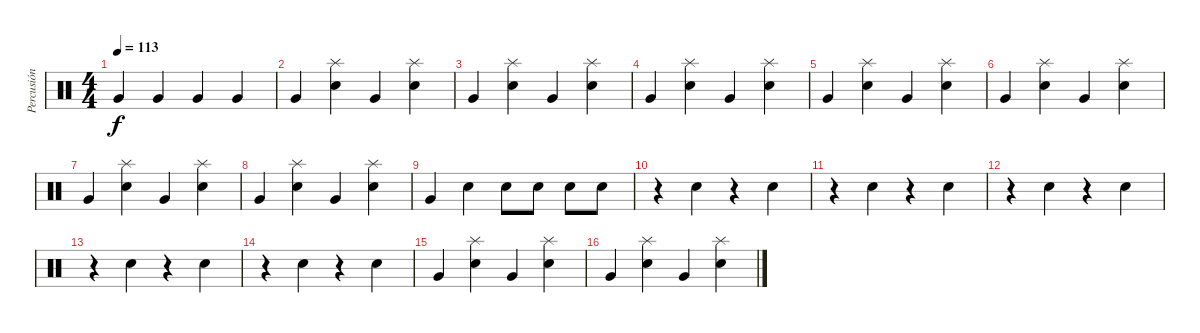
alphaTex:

\track ("Percusión" "Percusión") {instrument percussion}
\staff {score}
\articulation defaults
\ts (4 4)
\tempo 113
\clef neutral
\ks c "Very Low Tom (hit)".4{dy f} "Very Low Tom (hit)".4 "Very Low Tom (hit)".4 "Very Low Tom (hit)".4
|
"Very Low Tom (hit)".4 ("Snare (hit) 2" "Splash (hit)").4 "Very Low Tom (hit)".4 ("Snare (hit) 2" "Splash (hit)").4 |
"Very Low Tom (hit)".4 ("Snare (hit) 2" "Splash (hit)").4 "Very Low Tom (hit)".4 ("Snare (hit) 2" "Splash (hit)").4 |
"Very Low Tom (hit)".4 ("Snare (hit) 2" "Splash (hit)").4 "Very Low Tom (hit)".4 ("Snare (hit) 2" "Splash (hit)").4 |
"Very Low Tom (hit)".4 ("Snare (hit) 2" "Splash (hit)").4 "Very Low Tom (hit)".4 ("Snare (hit) 2" "Splash (hit)").4 |
"Very Low Tom (hit)".4 ("Snare (hit) 2" "Splash (hit)").4 "Very Low Tom (hit)".4 ("Snare (hit) 2" "Splash (hit)").4 |
"Very Low Tom (hit)".4 ("Snare (hit) 2" "Splash (hit)").4 "Very Low Tom (hit)".4 ("Snare (hit) 2" "Splash (hit)").4 |
"Very Low Tom (hit)".4 ("Snare (hit) 2" "Splash (hit)").4 "Very Low Tom (hit)".4 ("Snare (hit) 2" "Splash (hit)").4 |
"Very Low Tom (hit)".4 "Snare (hit) 2".4 "Snare (hit) 2".8 "Snare (hit) 2".8 "Snare (hit) 2".8 "Snare (hit) 2".8 |
r.4 "Snare (hit) 2".4 r.4 "Snare (hit) 2".4 |
r.4 "Snare (hit) 2".4 r.4 "Snare (hit) 2".4 |
r.4 "Snare (hit) 2".4 r.4 "Snare (hit) 2".4 |
r.4 "Snare (hit) 2".4 r.4 "Snare (hit) 2".4 |
r.4 "Snare (hit) 2".4 r.4 "Snare (hit) 2".4 |
"Very Low Tom (hit)".4 ("Snare (hit) 2" "Splash (hit)").4 "Very Low Tom (hit)".4 ("Snare (hit) 2" "Splash (hit)").4 |
"Very Low Tom (hit)".4 ("Snare (hit) 2" "Splash (hit)").4 "Very Low Tom (hit)".4 ("Snare (hit) 2" "Splash (hit)").4
